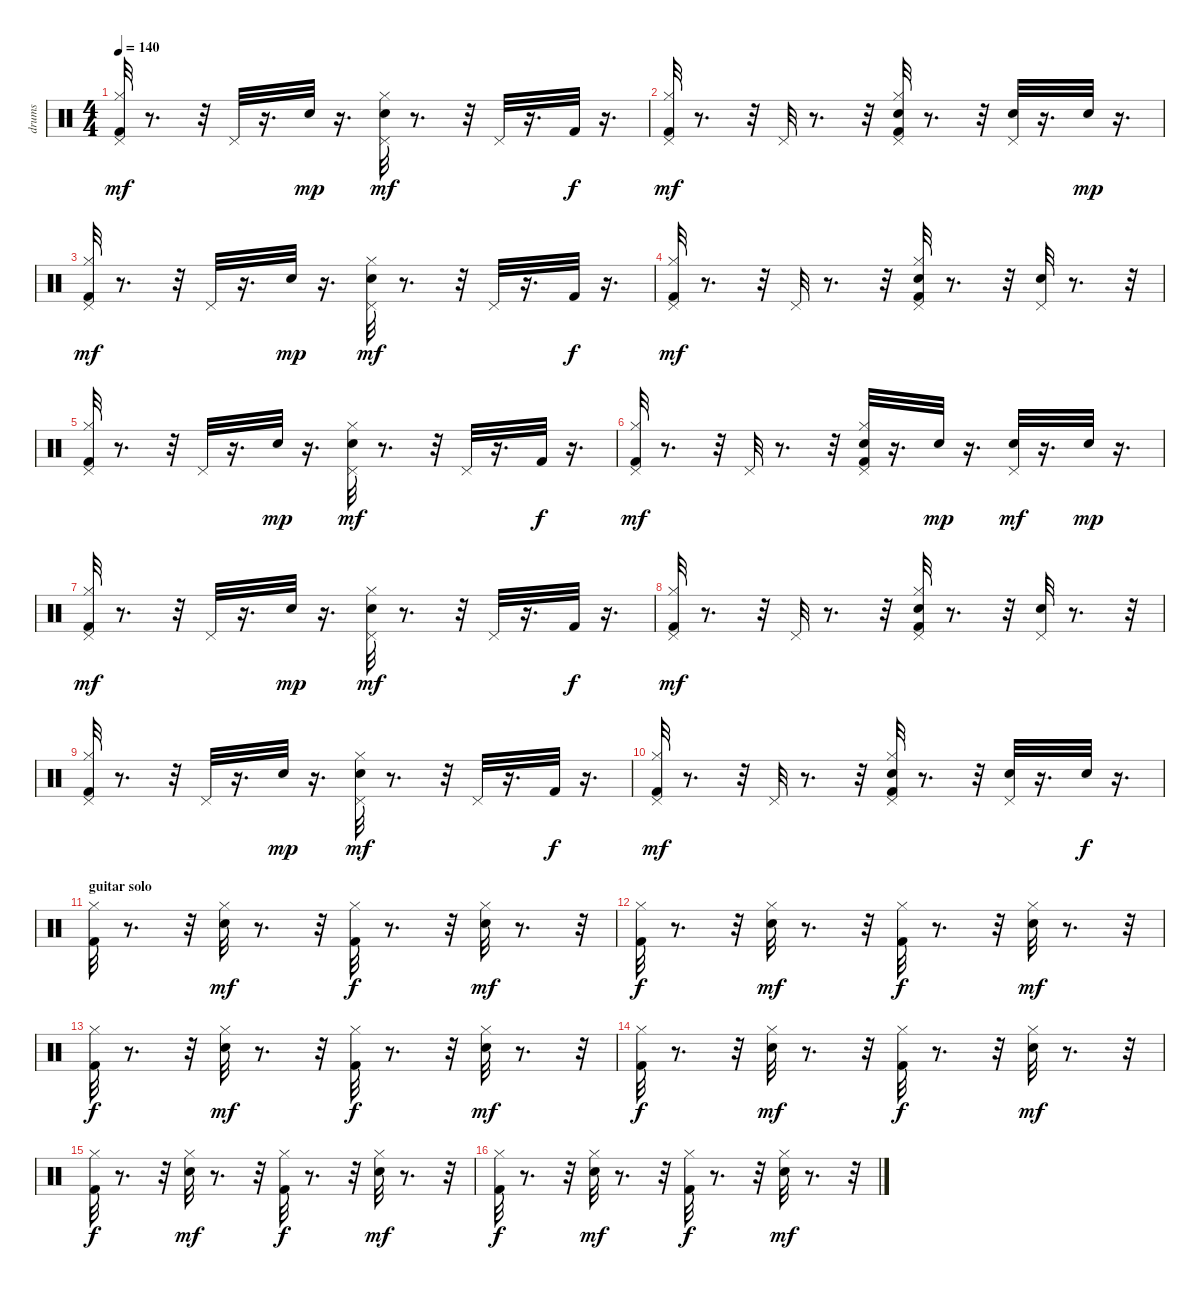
\track ("drums" "drums") {instrument percussion}
\staff {score}
\articulation defaults
\ts (4 4)
\tempo 140
\clef neutral
\ks c
("Kick (hit) 2" "Hi-Hat (closed)" "Pedal Hi-Hat (hit)").32{dy mf} r.8{d} r.32 "Pedal Hi-Hat (hit)".32 r.16{d} "Snare (hit) 2".32{dy mp} r.16{d} ("Snare (hit) 2" "Hi-Hat (closed)" "Pedal Hi-Hat (hit)").32{dy mf} r.8{d} r.32 "Pedal Hi-Hat (hit)".32 r.16{d} "Kick (hit) 2".32{dy f} r.16{d} |
("Kick (hit) 2" "Hi-Hat (closed)" "Pedal Hi-Hat (hit)").32{dy mf} r.8{d} r.32 "Pedal Hi-Hat (hit)".32 r.8{d} r.32 ("Kick (hit) 2" "Snare (hit) 2" "Hi-Hat (closed)" "Pedal Hi-Hat (hit)").32 r.8{d} r.32 ("Snare (hit) 2" "Pedal Hi-Hat (hit)").32 r.16{d} "Snare (hit) 2".32{dy mp} r.16{d} |
("Kick (hit) 2" "Hi-Hat (closed)" "Pedal Hi-Hat (hit)").32{dy mf} r.8{d} r.32 "Pedal Hi-Hat (hit)".32 r.16{d} "Snare (hit) 2".32{dy mp} r.16{d} ("Snare (hit) 2" "Hi-Hat (closed)" "Pedal Hi-Hat (hit)").32{dy mf} r.8{d} r.32 "Pedal Hi-Hat (hit)".32 r.16{d} "Kick (hit) 2".32{dy f} r.16{d} |
("Kick (hit) 2" "Hi-Hat (closed)" "Pedal Hi-Hat (hit)").32{dy mf} r.8{d} r.32 "Pedal Hi-Hat (hit)".32 r.8{d} r.32 ("Kick (hit) 2" "Snare (hit) 2" "Hi-Hat (closed)" "Pedal Hi-Hat (hit)").32 r.8{d} r.32 ("Snare (hit) 2" "Pedal Hi-Hat (hit)").32 r.8{d} r.32 |
("Kick (hit) 2" "Hi-Hat (closed)" "Pedal Hi-Hat (hit)").32 r.8{d} r.32 "Pedal Hi-Hat (hit)".32 r.16{d} "Snare (hit) 2".32{dy mp} r.16{d} ("Snare (hit) 2" "Hi-Hat (closed)" "Pedal Hi-Hat (hit)").32{dy mf} r.8{d} r.32 "Pedal Hi-Hat (hit)".32 r.16{d} "Kick (hit) 2".32{dy f} r.16{d} |
("Kick (hit) 2" "Hi-Hat (closed)" "Pedal Hi-Hat (hit)").32{dy mf} r.8{d} r.32 "Pedal Hi-Hat (hit)".32 r.8{d} r.32 ("Kick (hit) 2" "Snare (hit) 2" "Hi-Hat (closed)" "Pedal Hi-Hat (hit)").32 r.16{d} "Snare (hit) 2".32{dy mp} r.16{d} ("Snare (hit) 2" "Pedal Hi-Hat (hit)").32{dy mf} r.16{d} "Snare (hit) 2".32{dy mp} r.16{d} |
("Kick (hit) 2" "Hi-Hat (closed)" "Pedal Hi-Hat (hit)").32{dy mf} r.8{d} r.32 "Pedal Hi-Hat (hit)".32 r.16{d} "Snare (hit) 2".32{dy mp} r.16{d} ("Snare (hit) 2" "Hi-Hat (closed)" "Pedal Hi-Hat (hit)").32{dy mf} r.8{d} r.32 "Pedal Hi-Hat (hit)".32 r.16{d} "Kick (hit) 2".32{dy f} r.16{d} |
("Kick (hit) 2" "Hi-Hat (closed)" "Pedal Hi-Hat (hit)").32{dy mf} r.8{d} r.32 "Pedal Hi-Hat (hit)".32 r.8{d} r.32 ("Kick (hit) 2" "Snare (hit) 2" "Hi-Hat (closed)" "Pedal Hi-Hat (hit)").32 r.8{d} r.32 ("Snare (hit) 2" "Pedal Hi-Hat (hit)").32 r.8{d} r.32 |
("Kick (hit) 2" "Hi-Hat (closed)" "Pedal Hi-Hat (hit)").32 r.8{d} r.32 "Pedal Hi-Hat (hit)".32 r.16{d} "Snare (hit) 2".32{dy mp} r.16{d} ("Snare (hit) 2" "Hi-Hat (closed)" "Pedal Hi-Hat (hit)").32{dy mf} r.8{d} r.32 "Pedal Hi-Hat (hit)".32 r.16{d} "Kick (hit) 2".32{dy f} r.16{d} |
("Kick (hit) 2" "Hi-Hat (closed)" "Pedal Hi-Hat (hit)").32{dy mf} r.8{d} r.32 "Pedal Hi-Hat (hit)".32 r.8{d} r.32 ("Kick (hit) 2" "Snare (hit) 2" "Hi-Hat (closed)" "Pedal Hi-Hat (hit)").32 r.8{d} r.32 ("Snare (hit) 2" "Pedal Hi-Hat (hit)").32 r.16{d} "Snare (hit) 2".32{dy f} r.16{d} |
\section ("" "guitar solo")
("Kick (hit) 2" "Hi-Hat (closed)").32 r.8{d} r.32 ("Snare (hit) 2" "Hi-Hat (closed)").32{dy mf} r.8{d} r.32 ("Kick (hit) 2" "Hi-Hat (closed)").32{dy f} r.8{d} r.32 ("Snare (hit) 2" "Hi-Hat (closed)").32{dy mf} r.8{d} r.32 |
("Kick (hit) 2" "Hi-Hat (closed)").32{dy f} r.8{d} r.32 ("Snare (hit) 2" "Hi-Hat (closed)").32{dy mf} r.8{d} r.32 ("Kick (hit) 2" "Hi-Hat (closed)").32{dy f} r.8{d} r.32 ("Snare (hit) 2" "Hi-Hat (closed)").32{dy mf} r.8{d} r.32 |
("Kick (hit) 2" "Hi-Hat (closed)").32{dy f} r.8{d} r.32 ("Snare (hit) 2" "Hi-Hat (closed)").32{dy mf} r.8{d} r.32 ("Kick (hit) 2" "Hi-Hat (closed)").32{dy f} r.8{d} r.32 ("Snare (hit) 2" "Hi-Hat (closed)").32{dy mf} r.8{d} r.32 |
("Kick (hit) 2" "Hi-Hat (closed)").32{dy f} r.8{d} r.32 ("Snare (hit) 2" "Hi-Hat (closed)").32{dy mf} r.8{d} r.32 ("Kick (hit) 2" "Hi-Hat (closed)").32{dy f} r.8{d} r.32 ("Snare (hit) 2" "Hi-Hat (closed)").32{dy mf} r.8{d} r.32 |
("Kick (hit) 2" "Hi-Hat (closed)").32{dy f} r.8{d} r.32 ("Snare (hit) 2" "Hi-Hat (closed)").32{dy mf} r.8{d} r.32 ("Kick (hit) 2" "Hi-Hat (closed)").32{dy f} r.8{d} r.32 ("Snare (hit) 2" "Hi-Hat (closed)").32{dy mf} r.8{d} r.32 |
("Kick (hit) 2" "Hi-Hat (closed)").32{dy f} r.8{d} r.32 ("Snare (hit) 2" "Hi-Hat (closed)").32{dy mf} r.8{d} r.32 ("Kick (hit) 2" "Hi-Hat (closed)").32{dy f} r.8{d} r.32 ("Snare (hit) 2" "Hi-Hat (closed)").32{dy mf} r.8{d} r.32
